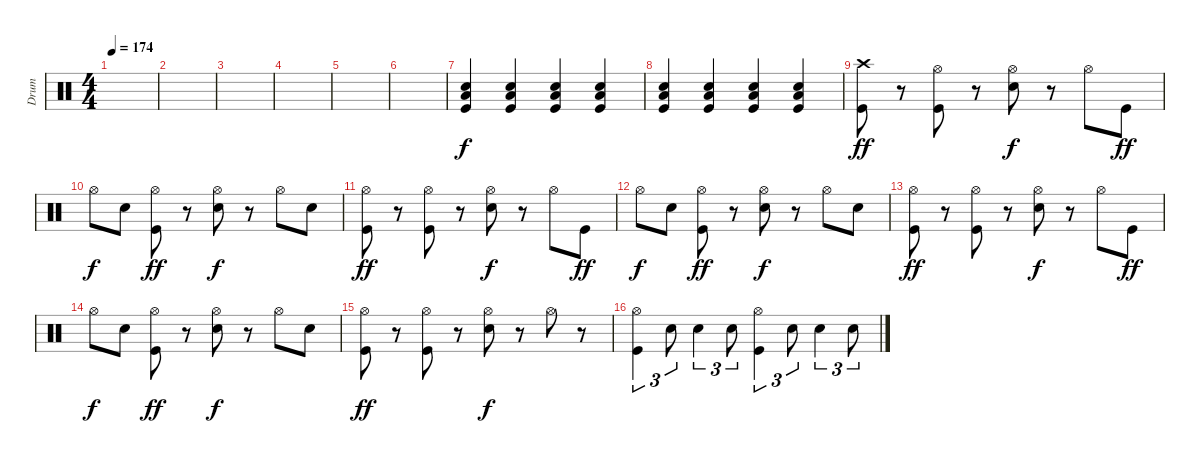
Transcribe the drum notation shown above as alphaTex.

\track ("Drum" "Drum") {instrument percussion}
\staff {score}
\articulation defaults
\ts (4 4)
\tempo 174
\clef neutral
\ks c
|
|
|
|
|
|
("Low Floor Tom (hit)" "Snare (hit) 2" "Kick (hit)").4{volume 13} ("Low Floor Tom (hit)" "Snare (hit) 2" "Kick (hit)").4 ("Low Floor Tom (hit)" "Snare (hit) 2" "Kick (hit)").4 ("Low Floor Tom (hit)" "Snare (hit) 2" "Kick (hit)").4 |
("Low Floor Tom (hit)" "Snare (hit) 2" "Kick (hit)").4 ("Low Floor Tom (hit)" "Snare (hit) 2" "Kick (hit)").4 ("Low Floor Tom (hit)" "Snare (hit) 2" "Kick (hit)").4 ("Low Floor Tom (hit)" "Snare (hit) 2" "Kick (hit)").4 |
("Crash high (hit)" "Kick (hit)").8{dy ff volume 13} r.8 ("Hi-Hat (open)" "Kick (hit)").8 r.8 ("Hi-Hat (open)" "Snare (hit) 2").8{dy f} r.8 "Hi-Hat (open)".8 "Kick (hit)".8{dy ff} |
"Hi-Hat (open)".8{dy f} "Snare (hit) 2".8 ("Hi-Hat (open)" "Kick (hit)").8{dy ff} r.8 ("Hi-Hat (open)" "Snare (hit) 2").8{dy f} r.8 "Hi-Hat (open)".8 "Snare (hit) 2".8 |
("Hi-Hat (open)" "Kick (hit)").8{dy ff} r.8 ("Hi-Hat (open)" "Kick (hit)").8 r.8 ("Hi-Hat (open)" "Snare (hit) 2").8{dy f} r.8 "Hi-Hat (open)".8 "Kick (hit)".8{dy ff} |
"Hi-Hat (open)".8{dy f} "Snare (hit) 2".8 ("Hi-Hat (open)" "Kick (hit)").8{dy ff} r.8 ("Hi-Hat (open)" "Snare (hit) 2").8{dy f} r.8 "Hi-Hat (open)".8 "Snare (hit) 2".8 |
("Hi-Hat (open)" "Kick (hit)").8{dy ff} r.8 ("Hi-Hat (open)" "Kick (hit)").8 r.8 ("Hi-Hat (open)" "Snare (hit) 2").8{dy f} r.8 "Hi-Hat (open)".8 "Kick (hit)".8{dy ff} |
"Hi-Hat (open)".8{dy f} "Snare (hit) 2".8 ("Hi-Hat (open)" "Kick (hit)").8{dy ff} r.8 ("Hi-Hat (open)" "Snare (hit) 2").8{dy f} r.8 "Hi-Hat (open)".8 "Snare (hit) 2".8 |
("Hi-Hat (open)" "Kick (hit)").8{dy ff} r.8 ("Hi-Hat (open)" "Kick (hit)").8 r.8 ("Hi-Hat (open)" "Snare (hit) 2").8{dy f} r.8 "Hi-Hat (open)".8 r.8 |
("Hi-Hat (open)" "Kick (hit)").4{tu (3 2)} "Snare (hit) 2".8{tu (3 2)} "Snare (hit) 2".4{tu (3 2)} "Snare (hit) 2".8{tu (3 2)} ("Hi-Hat (open)" "Kick (hit)").4{tu (3 2)} "Snare (hit) 2".8{tu (3 2)} "Snare (hit) 2".4{tu (3 2)} "Snare (hit) 2".8{tu (3 2)}
